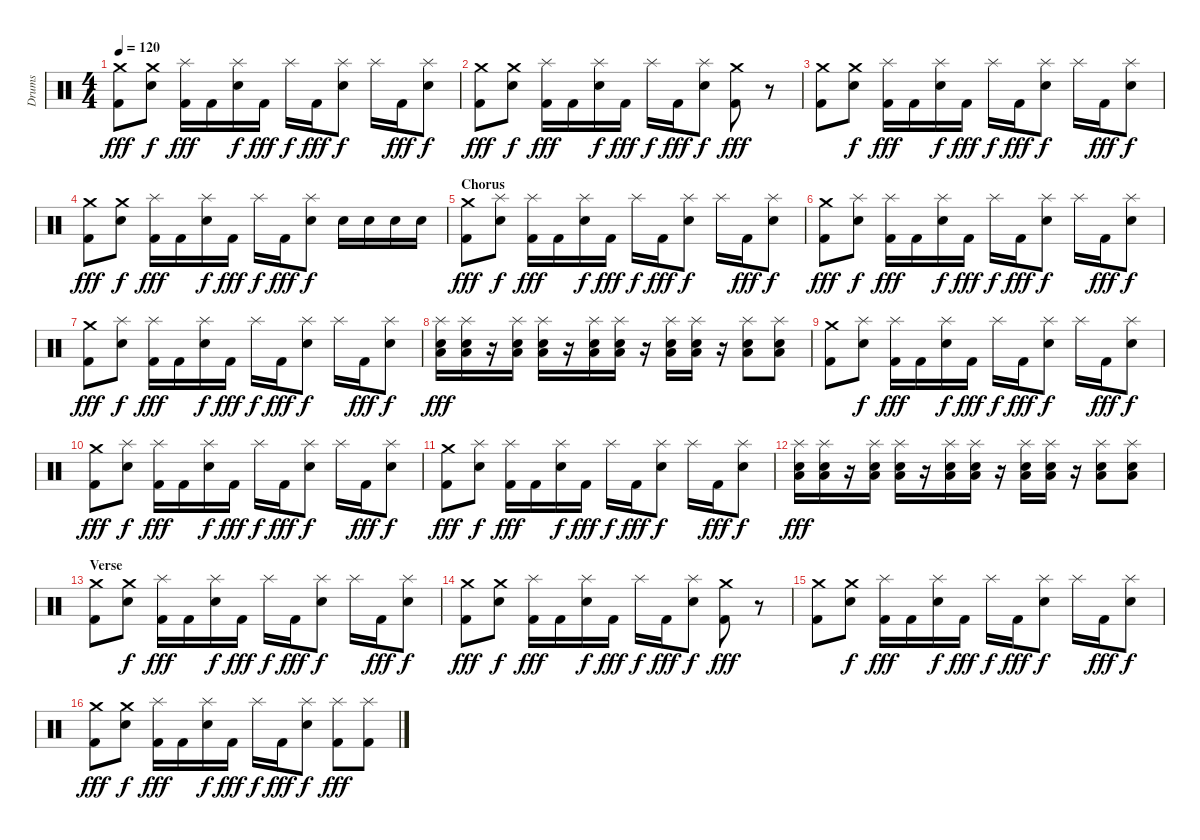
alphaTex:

\track ("Drums" "Drums") {instrument percussion}
\staff {score}
\articulation defaults
\ts (4 4)
\tempo 120
\clef neutral
\ks c
("Crash medium (hit)" "Kick (hit) 2").8{dy fff} ("Crash medium (hit)" "Electric Snare (hit)").8{dy f} ("Splash (hit)" "Kick (hit) 2").16{dy fff} "Kick (hit) 2".16 ("Splash (hit)" "Electric Snare (hit)").16{dy f} "Kick (hit) 2".16{dy fff} "Splash (hit)".16{dy f} "Kick (hit) 2".16{dy fff} ("Splash (hit)" "Electric Snare (hit)").8{dy f} "Splash (hit)".16 "Kick (hit) 2".16{dy fff} ("Splash (hit)" "Electric Snare (hit)").8{dy f} |
("Crash medium (hit)" "Kick (hit) 2").8{dy fff} ("Crash medium (hit)" "Electric Snare (hit)").8{dy f} ("Splash (hit)" "Kick (hit) 2").16{dy fff} "Kick (hit) 2".16 ("Splash (hit)" "Electric Snare (hit)").16{dy f} "Kick (hit) 2".16{dy fff} "Splash (hit)".16{dy f} "Kick (hit) 2".16{dy fff} ("Splash (hit)" "Electric Snare (hit)").8{dy f} ("Crash medium (hit)" "Kick (hit) 2").8{dy fff} r.8 |
("Crash medium (hit)" "Kick (hit) 2").8 ("Crash medium (hit)" "Electric Snare (hit)").8{dy f} ("Splash (hit)" "Kick (hit) 2").16{dy fff} "Kick (hit) 2".16 ("Splash (hit)" "Electric Snare (hit)").16{dy f} "Kick (hit) 2".16{dy fff} "Splash (hit)".16{dy f} "Kick (hit) 2".16{dy fff} ("Splash (hit)" "Electric Snare (hit)").8{dy f} "Splash (hit)".16 "Kick (hit) 2".16{dy fff} ("Splash (hit)" "Electric Snare (hit)").8{dy f} |
("Crash medium (hit)" "Kick (hit) 2").8{dy fff} ("Crash medium (hit)" "Electric Snare (hit)").8{dy f} ("Splash (hit)" "Kick (hit) 2").16{dy fff} "Kick (hit) 2".16 ("Splash (hit)" "Electric Snare (hit)").16{dy f} "Kick (hit) 2".16{dy fff} "Splash (hit)".16{dy f} "Kick (hit) 2".16{dy fff} ("Splash (hit)" "Electric Snare (hit)").8{dy f} "Electric Snare (hit)".16 "Electric Snare (hit)".16 "Electric Snare (hit)".16 "Electric Snare (hit)".16 |
\section ("" "Chorus")
("Crash medium (hit)" "Kick (hit) 2").8{dy fff} ("Splash (hit)" "Electric Snare (hit)").8{dy f} ("Splash (hit)" "Kick (hit) 2").16{dy fff} "Kick (hit) 2".16 ("Splash (hit)" "Electric Snare (hit)").16{dy f} "Kick (hit) 2".16{dy fff} "Splash (hit)".16{dy f} "Kick (hit) 2".16{dy fff} ("Splash (hit)" "Electric Snare (hit)").8{dy f} "Splash (hit)".16 "Kick (hit) 2".16{dy fff} ("Splash (hit)" "Electric Snare (hit)").8{dy f} |
("Crash medium (hit)" "Kick (hit) 2").8{dy fff} ("Splash (hit)" "Electric Snare (hit)").8{dy f} ("Splash (hit)" "Kick (hit) 2").16{dy fff} "Kick (hit) 2".16 ("Splash (hit)" "Electric Snare (hit)").16{dy f} "Kick (hit) 2".16{dy fff} "Splash (hit)".16{dy f} "Kick (hit) 2".16{dy fff} ("Splash (hit)" "Electric Snare (hit)").8{dy f} "Splash (hit)".16 "Kick (hit) 2".16{dy fff} ("Splash (hit)" "Electric Snare (hit)").8{dy f} |
("Crash medium (hit)" "Kick (hit) 2").8{dy fff} ("Splash (hit)" "Electric Snare (hit)").8{dy f} ("Splash (hit)" "Kick (hit) 2").16{dy fff} "Kick (hit) 2".16 ("Splash (hit)" "Electric Snare (hit)").16{dy f} "Kick (hit) 2".16{dy fff} "Splash (hit)".16{dy f} "Kick (hit) 2".16{dy fff} ("Splash (hit)" "Electric Snare (hit)").8{dy f} "Splash (hit)".16 "Kick (hit) 2".16{dy fff} ("Splash (hit)" "Electric Snare (hit)").8{dy f} |
("Splash (hit)" "Electric Snare (hit)" "Low Floor Tom (hit)").16{dy fff} ("Splash (hit)" "Electric Snare (hit)" "Low Floor Tom (hit)").16 r.16 ("Splash (hit)" "Electric Snare (hit)" "Low Floor Tom (hit)").16 ("Splash (hit)" "Electric Snare (hit)" "Low Floor Tom (hit)").16 r.16 ("Splash (hit)" "Electric Snare (hit)" "Low Floor Tom (hit)").16 ("Splash (hit)" "Electric Snare (hit)" "Low Floor Tom (hit)").16 r.16 ("Splash (hit)" "Electric Snare (hit)" "Low Floor Tom (hit)").16 ("Splash (hit)" "Electric Snare (hit)" "Low Floor Tom (hit)").16 r.16 ("Splash (hit)" "Electric Snare (hit)" "Low Floor Tom (hit)").8 ("Splash (hit)" "Electric Snare (hit)" "Low Floor Tom (hit)").8 |
("Crash medium (hit)" "Kick (hit) 2").8 ("Splash (hit)" "Electric Snare (hit)").8{dy f} ("Splash (hit)" "Kick (hit) 2").16{dy fff} "Kick (hit) 2".16 ("Splash (hit)" "Electric Snare (hit)").16{dy f} "Kick (hit) 2".16{dy fff} "Splash (hit)".16{dy f} "Kick (hit) 2".16{dy fff} ("Splash (hit)" "Electric Snare (hit)").8{dy f} "Splash (hit)".16 "Kick (hit) 2".16{dy fff} ("Splash (hit)" "Electric Snare (hit)").8{dy f} |
("Crash medium (hit)" "Kick (hit) 2").8{dy fff} ("Splash (hit)" "Electric Snare (hit)").8{dy f} ("Splash (hit)" "Kick (hit) 2").16{dy fff} "Kick (hit) 2".16 ("Splash (hit)" "Electric Snare (hit)").16{dy f} "Kick (hit) 2".16{dy fff} "Splash (hit)".16{dy f} "Kick (hit) 2".16{dy fff} ("Splash (hit)" "Electric Snare (hit)").8{dy f} "Splash (hit)".16 "Kick (hit) 2".16{dy fff} ("Splash (hit)" "Electric Snare (hit)").8{dy f} |
("Crash medium (hit)" "Kick (hit) 2").8{dy fff} ("Splash (hit)" "Electric Snare (hit)").8{dy f} ("Splash (hit)" "Kick (hit) 2").16{dy fff} "Kick (hit) 2".16 ("Splash (hit)" "Electric Snare (hit)").16{dy f} "Kick (hit) 2".16{dy fff} "Splash (hit)".16{dy f} "Kick (hit) 2".16{dy fff} ("Splash (hit)" "Electric Snare (hit)").8{dy f} "Splash (hit)".16 "Kick (hit) 2".16{dy fff} ("Splash (hit)" "Electric Snare (hit)").8{dy f} |
("Splash (hit)" "Electric Snare (hit)" "Low Floor Tom (hit)").16{dy fff} ("Splash (hit)" "Electric Snare (hit)" "Low Floor Tom (hit)").16 r.16 ("Splash (hit)" "Electric Snare (hit)" "Low Floor Tom (hit)").16 ("Splash (hit)" "Electric Snare (hit)" "Low Floor Tom (hit)").16 r.16 ("Splash (hit)" "Electric Snare (hit)" "Low Floor Tom (hit)").16 ("Splash (hit)" "Electric Snare (hit)" "Low Floor Tom (hit)").16 r.16 ("Splash (hit)" "Electric Snare (hit)" "Low Floor Tom (hit)").16 ("Splash (hit)" "Electric Snare (hit)" "Low Floor Tom (hit)").16 r.16 ("Splash (hit)" "Electric Snare (hit)" "Low Floor Tom (hit)").8 ("Splash (hit)" "Electric Snare (hit)" "Low Floor Tom (hit)").8 |
\section ("" "Verse")
("Crash medium (hit)" "Kick (hit) 2").8 ("Crash medium (hit)" "Electric Snare (hit)").8{dy f} ("Splash (hit)" "Kick (hit) 2").16{dy fff} "Kick (hit) 2".16 ("Splash (hit)" "Electric Snare (hit)").16{dy f} "Kick (hit) 2".16{dy fff} "Splash (hit)".16{dy f} "Kick (hit) 2".16{dy fff} ("Splash (hit)" "Electric Snare (hit)").8{dy f} "Splash (hit)".16 "Kick (hit) 2".16{dy fff} ("Splash (hit)" "Electric Snare (hit)").8{dy f} |
("Crash medium (hit)" "Kick (hit) 2").8{dy fff} ("Crash medium (hit)" "Electric Snare (hit)").8{dy f} ("Splash (hit)" "Kick (hit) 2").16{dy fff} "Kick (hit) 2".16 ("Splash (hit)" "Electric Snare (hit)").16{dy f} "Kick (hit) 2".16{dy fff} "Splash (hit)".16{dy f} "Kick (hit) 2".16{dy fff} ("Splash (hit)" "Electric Snare (hit)").8{dy f} ("Crash medium (hit)" "Kick (hit) 2").8{dy fff} r.8 |
("Crash medium (hit)" "Kick (hit) 2").8 ("Crash medium (hit)" "Electric Snare (hit)").8{dy f} ("Splash (hit)" "Kick (hit) 2").16{dy fff} "Kick (hit) 2".16 ("Splash (hit)" "Electric Snare (hit)").16{dy f} "Kick (hit) 2".16{dy fff} "Splash (hit)".16{dy f} "Kick (hit) 2".16{dy fff} ("Splash (hit)" "Electric Snare (hit)").8{dy f} "Splash (hit)".16 "Kick (hit) 2".16{dy fff} ("Splash (hit)" "Electric Snare (hit)").8{dy f} |
("Crash medium (hit)" "Kick (hit) 2").8{dy fff} ("Crash medium (hit)" "Electric Snare (hit)").8{dy f} ("Splash (hit)" "Kick (hit) 2").16{dy fff} "Kick (hit) 2".16 ("Splash (hit)" "Electric Snare (hit)").16{dy f} "Kick (hit) 2".16{dy fff} "Splash (hit)".16{dy f} "Kick (hit) 2".16{dy fff} ("Splash (hit)" "Electric Snare (hit)").8{dy f} ("Splash (hit)" "Kick (hit) 2").8{dy fff} ("Splash (hit)" "Kick (hit) 2").8
